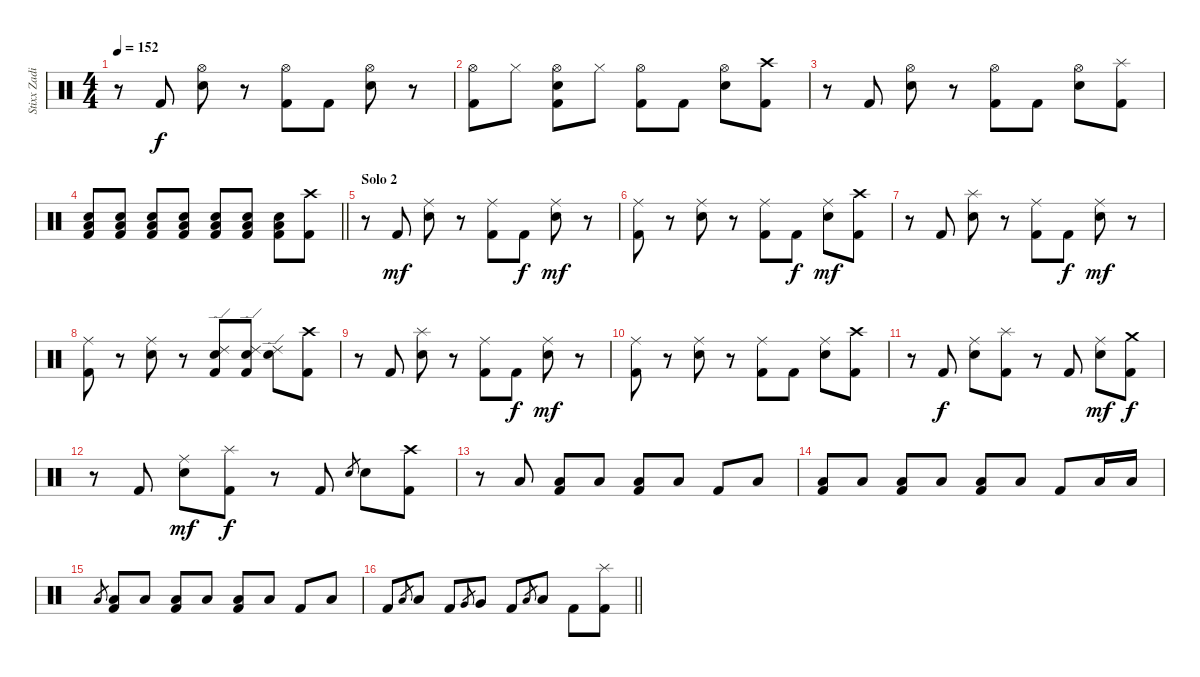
\track ("Stixx Zadinia" "Stixx Zadi") {instrument percussion}
\staff {score}
\articulation defaults
\ts (4 4)
\tempo 152
\clef neutral
\ks c
r.8{dy f} "Kick (hit) 2".8 ("Hi-Hat (open)" "Snare (hit) 2").8 r.8 ("Hi-Hat (open)" "Kick (hit) 2").8 "Kick (hit) 2".8 ("Hi-Hat (open)" "Snare (hit) 2").8 r.8 |
("Hi-Hat (open)" "Kick (hit) 2").8 "Hi-Hat (closed)".8 ("Hi-Hat (open)" "Snare (hit) 2" "Kick (hit) 2").8 "Hi-Hat (closed)".8 ("Hi-Hat (open)" "Kick (hit) 2").8 "Kick (hit) 2".8 ("Hi-Hat (open)" "Snare (hit) 2").8 ("Crash high (hit)" "Kick (hit) 2").8 |
r.8 "Kick (hit) 2".8 ("Hi-Hat (open)" "Snare (hit) 2").8 r.8 ("Hi-Hat (open)" "Kick (hit) 2").8 "Kick (hit) 2".8 ("Hi-Hat (open)" "Snare (hit) 2").8 ("Splash (hit)" "Kick (hit) 2").8 |
\barLineRight lightlight
("Low Floor Tom (hit)" "Snare (hit) 2" "Kick (hit) 2").8 ("Low Floor Tom (hit)" "Snare (hit) 2" "Kick (hit) 2").8 ("Low Floor Tom (hit)" "Snare (hit) 2" "Kick (hit) 2").8 ("Low Floor Tom (hit)" "Snare (hit) 2" "Kick (hit) 2").8 ("Low Floor Tom (hit)" "Snare (hit) 2" "Kick (hit) 2").8 ("Low Floor Tom (hit)" "Snare (hit) 2" "Kick (hit) 2").8 ("Low Floor Tom (hit)" "Snare (hit) 2" "Kick (hit) 2").8 ("Crash high (hit)" "Kick (hit) 2").8 |
\section ("" "Solo 2")
r.8 "Kick (hit) 2".8{dy mf} ("Ride (middle)" "Snare (hit) 2").8 r.8 ("Ride (middle)" "Kick (hit) 2").8 "Kick (hit) 2".8{dy f} ("Ride (middle)" "Snare (hit) 2").8{dy mf} r.8 |
("Ride (middle)" "Kick (hit) 2").8 r.8 ("Ride (middle)" "Snare (hit) 2").8 r.8 ("Ride (middle)" "Kick (hit) 2").8 "Kick (hit) 2".8{dy f} ("Ride (middle)" "Snare (hit) 2").8{dy mf} ("Crash high (hit)" "Kick (hit) 2").8 |
r.8 "Kick (hit) 2".8 ("Splash (hit)" "Snare (hit) 2").8 r.8 ("Ride (middle)" "Kick (hit) 2").8 "Kick (hit) 2".8{dy f} ("Ride (middle)" "Snare (hit) 2").8{dy mf} r.8 |
("Ride (middle)" "Kick (hit) 2").8 r.8 ("Ride (middle)" "Snare (hit) 2").8 r.8 ("Ride (edge) 2" "Snare (hit) 2" "Kick (hit) 2").8 ("Ride (edge) 2" "Snare (hit) 2" "Kick (hit) 2").8 ("Ride (edge) 2" "Snare (hit) 2").8 ("Crash high (hit)" "Kick (hit) 2").8 |
r.8 "Kick (hit) 2".8 ("Splash (hit)" "Snare (hit) 2").8 r.8 ("Ride (middle)" "Kick (hit) 2").8 "Kick (hit) 2".8{dy f} ("Ride (middle)" "Snare (hit) 2").8{dy mf} r.8 |
("Ride (middle)" "Kick (hit) 2").8 r.8 ("Ride (middle)" "Snare (hit) 2").8 r.8 ("Ride (middle)" "Kick (hit) 2").8 "Kick (hit) 2".8 ("Ride (middle)" "Snare (hit) 2").8 ("Crash high (hit)" "Kick (hit) 2").8 |
r.8 "Kick (hit) 2".8{dy f} ("Ride (middle)" "Snare (hit) 2").8 ("Splash (hit)" "Kick (hit) 2").8 r.8 "Kick (hit) 2".8 ("Ride (middle)" "Snare (hit) 2").8{dy mf} ("Crash medium (hit)" "Kick (hit) 2").8{dy f} |
r.8 "Kick (hit) 2".8 ("Ride (middle)" "Snare (hit) 2").8{dy mf} ("Splash (hit)" "Kick (hit) 2").8{dy f} r.8 "Kick (hit) 2".8 "Snare (hit) 2".8{gr} "Snare (hit) 2".8 ("Crash high (hit)" "Kick (hit) 2").8 |
r.8 "Low Floor Tom (hit)".8 ("Low Floor Tom (hit)" "Kick (hit) 2").8 "Low Floor Tom (hit)".8 ("Low Floor Tom (hit)" "Kick (hit) 2").8 "Low Floor Tom (hit)".8 "Kick (hit) 2".8 "Low Floor Tom (hit)".8 |
("Low Floor Tom (hit)" "Kick (hit) 2").8 "Low Floor Tom (hit)".8 ("Low Floor Tom (hit)" "Kick (hit) 2").8 "Low Floor Tom (hit)".8 ("Low Floor Tom (hit)" "Kick (hit) 2").8 "Low Floor Tom (hit)".8 "Kick (hit) 2".8 "Low Floor Tom (hit)".16 "Low Floor Tom (hit)".16 |
"Low Floor Tom (hit)".8{gr} ("Low Floor Tom (hit)" "Kick (hit) 2").8 "Low Floor Tom (hit)".8 ("Low Floor Tom (hit)" "Kick (hit) 2").8 "Low Floor Tom (hit)".8 ("Low Floor Tom (hit)" "Kick (hit) 2").8 "Low Floor Tom (hit)".8 "Kick (hit) 2".8 "Low Floor Tom (hit)".8 |
\barLineRight lightlight "Kick (hit) 2".8 "Low Tom (hit)".8{gr} "Low Tom (hit)".8 "Kick (hit) 2".8 "Very Low Tom (hit)".8{gr} "Very Low Tom (hit)".8 "Kick (hit) 2".8 "Low Floor Tom (hit)".8{gr} "Low Floor Tom (hit)".8 "Kick (hit) 2".8
("Splash (hit)" "Kick (hit) 2").8
